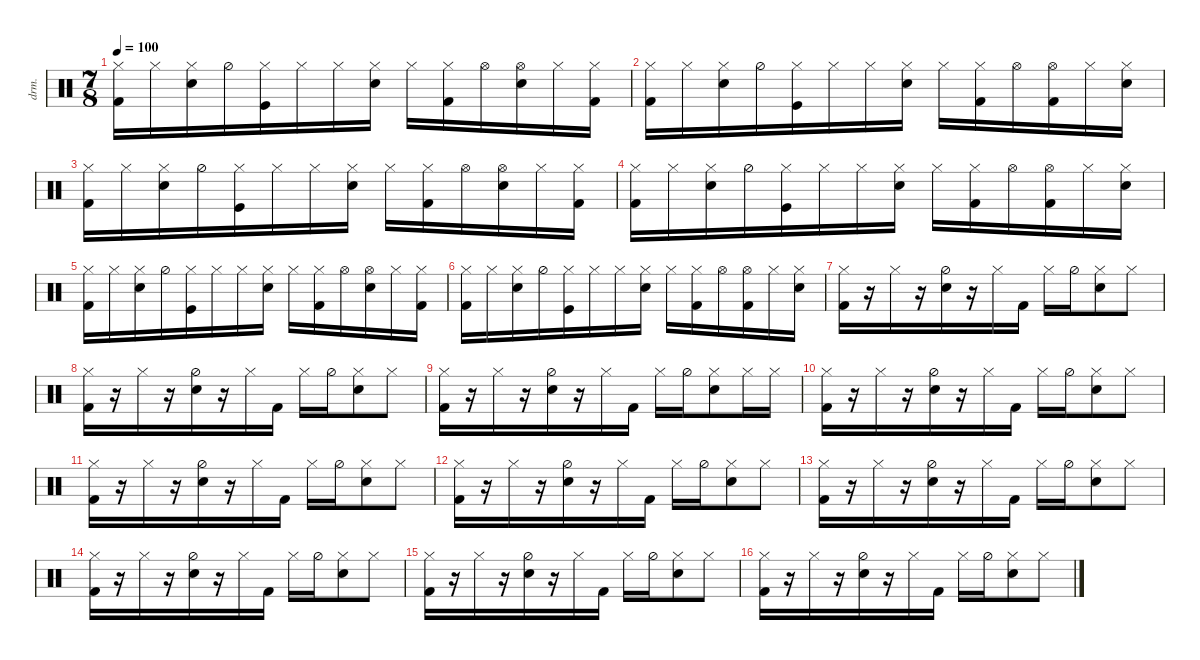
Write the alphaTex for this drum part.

\defaultSystemsLayout 4
\hideDynamics
\bracketExtendMode nobrackets
\otherSystemsTrackNameOrientation horizontal
\track ("Drumkit" "drm.") {instrument percussion}
\staff {score}
\articulation defaults
\ts (7 8)
\tempo 100
\clef neutral
\ks c
("Hi-Hat (closed)" "Kick (hit) 2").16{dy mf beam Down} "Hi-Hat (closed)".16{beam Down} ("Hi-Hat (closed)" "Snare (hit) 2").16{beam Down} "Hi-Hat (half)".16{beam Down} ("Hi-Hat (closed)" "Kick (hit)").16{beam Down} "Hi-Hat (closed)".16{beam Down} "Hi-Hat (closed)".16{beam Down} ("Hi-Hat (closed)" "Snare (hit) 2").16{beam Down} "Hi-Hat (closed)".16{beam Down} ("Hi-Hat (closed)" "Kick (hit) 2").16{beam Down} "Hi-Hat (open)".16{beam Down} ("Hi-Hat (open)" "Snare (hit) 2").16{beam Down} "Hi-Hat (closed)".16{beam Down} ("Hi-Hat (closed)" "Kick (hit) 2").16{beam Down} |
("Hi-Hat (closed)" "Kick (hit) 2").16{beam Down} "Hi-Hat (closed)".16{beam Down} ("Hi-Hat (closed)" "Snare (hit) 2").16{beam Down} "Hi-Hat (half)".16{beam Down} ("Hi-Hat (closed)" "Kick (hit)").16{beam Down} "Hi-Hat (closed)".16{beam Down} "Hi-Hat (closed)".16{beam Down} ("Hi-Hat (closed)" "Snare (hit) 2").16{beam Down} "Hi-Hat (closed)".16{beam Down} ("Hi-Hat (closed)" "Kick (hit) 2").16{beam Down} "Hi-Hat (open)".16{beam Down} ("Hi-Hat (open)" "Kick (hit) 2").16{beam Down} "Hi-Hat (closed)".16{beam Down} ("Hi-Hat (closed)" "Snare (hit) 2").16{beam Down} |
("Hi-Hat (closed)" "Kick (hit) 2").16{beam Down} "Hi-Hat (closed)".16{beam Down} ("Hi-Hat (closed)" "Snare (hit) 2").16{beam Down} "Hi-Hat (half)".16{beam Down} ("Hi-Hat (closed)" "Kick (hit)").16{beam Down} "Hi-Hat (closed)".16{beam Down} "Hi-Hat (closed)".16{beam Down} ("Hi-Hat (closed)" "Snare (hit) 2").16{beam Down} "Hi-Hat (closed)".16{beam Down} ("Hi-Hat (closed)" "Kick (hit) 2").16{beam Down} "Hi-Hat (open)".16{beam Down} ("Hi-Hat (open)" "Snare (hit) 2").16{beam Down} "Hi-Hat (closed)".16{beam Down} ("Hi-Hat (closed)" "Kick (hit) 2").16{beam Down} |
("Hi-Hat (closed)" "Kick (hit) 2").16{beam Down} "Hi-Hat (closed)".16{beam Down} ("Hi-Hat (closed)" "Snare (hit) 2").16{beam Down} "Hi-Hat (half)".16{beam Down} ("Hi-Hat (closed)" "Kick (hit)").16{beam Down} "Hi-Hat (closed)".16{beam Down} "Hi-Hat (closed)".16{beam Down} ("Hi-Hat (closed)" "Snare (hit) 2").16{beam Down} "Hi-Hat (closed)".16{beam Down} ("Hi-Hat (closed)" "Kick (hit) 2").16{beam Down} "Hi-Hat (open)".16{beam Down} ("Hi-Hat (open)" "Kick (hit) 2").16{beam Down} "Hi-Hat (closed)".16{beam Down} ("Hi-Hat (closed)" "Snare (hit) 2").16{beam Down} |
("Hi-Hat (closed)" "Kick (hit) 2").16{beam Down} "Hi-Hat (closed)".16{beam Down} ("Hi-Hat (closed)" "Snare (hit) 2").16{beam Down} "Hi-Hat (half)".16{beam Down} ("Hi-Hat (closed)" "Kick (hit)").16{beam Down} "Hi-Hat (closed)".16{beam Down} "Hi-Hat (closed)".16{beam Down} ("Hi-Hat (closed)" "Snare (hit) 2").16{beam Down} "Hi-Hat (closed)".16{beam Down} ("Hi-Hat (closed)" "Kick (hit) 2").16{beam Down} "Hi-Hat (open)".16{beam Down} ("Hi-Hat (open)" "Snare (hit) 2").16{beam Down} "Hi-Hat (closed)".16{beam Down} ("Hi-Hat (closed)" "Kick (hit) 2").16{beam Down} |
("Hi-Hat (closed)" "Kick (hit) 2").16{beam Down} "Hi-Hat (closed)".16{beam Down} ("Hi-Hat (closed)" "Snare (hit) 2").16{beam Down} "Hi-Hat (half)".16{beam Down} ("Hi-Hat (closed)" "Kick (hit)").16{beam Down} "Hi-Hat (closed)".16{beam Down} "Hi-Hat (closed)".16{beam Down} ("Hi-Hat (closed)" "Snare (hit) 2").16{beam Down} "Hi-Hat (closed)".16{beam Down} ("Hi-Hat (closed)" "Kick (hit) 2").16{beam Down} "Hi-Hat (open)".16{beam Down} ("Hi-Hat (open)" "Kick (hit) 2").16{beam Down} "Hi-Hat (closed)".16{beam Down} ("Hi-Hat (closed)" "Snare (hit) 2").16{beam Down} |
("Hi-Hat (closed)" "Kick (hit) 2").16{beam Down} r.16{beam Down} "Hi-Hat (closed)".16{beam Down} r.16{beam Down} ("Hi-Hat (half)" "Snare (hit) 2").16{beam Down} r.16{beam Down} "Hi-Hat (closed)".16{beam Down} "Kick (hit) 2".16{beam Down} "Hi-Hat (closed)".16{beam Down} "Hi-Hat (half)".16{beam Down} ("Snare (hit) 2" "Hi-Hat (closed)").8{beam Down} "Hi-Hat (closed)".8{beam Down} |
("Hi-Hat (closed)" "Kick (hit) 2").16{beam Down} r.16{beam Down} "Hi-Hat (closed)".16{beam Down} r.16{beam Down} ("Hi-Hat (half)" "Snare (hit) 2").16{beam Down} r.16{beam Down} "Hi-Hat (closed)".16{beam Down} "Kick (hit) 2".16{beam Down} "Hi-Hat (closed)".16{beam Down} "Hi-Hat (half)".16{beam Down} ("Snare (hit) 2" "Hi-Hat (closed)").8{beam Down} "Hi-Hat (closed)".8{beam Down} |
("Hi-Hat (closed)" "Kick (hit) 2").16{beam Down} r.16{beam Down} "Hi-Hat (closed)".16{beam Down} r.16{beam Down} ("Hi-Hat (half)" "Snare (hit) 2").16{beam Down} r.16{beam Down} "Hi-Hat (closed)".16{beam Down} "Kick (hit) 2".16{beam Down} "Hi-Hat (closed)".16{beam Down} "Hi-Hat (half)".16{beam Down} ("Snare (hit) 2" "Hi-Hat (closed)").8{beam Down} "Hi-Hat (closed)".16{beam Down} "Hi-Hat (closed)".16{beam Down} |
("Hi-Hat (closed)" "Kick (hit) 2").16{beam Down} r.16{beam Down} "Hi-Hat (closed)".16{beam Down} r.16{beam Down} ("Hi-Hat (half)" "Snare (hit) 2").16{beam Down} r.16{beam Down} "Hi-Hat (closed)".16{beam Down} "Kick (hit) 2".16{beam Down} "Hi-Hat (closed)".16{beam Down} "Hi-Hat (half)".16{beam Down} ("Snare (hit) 2" "Hi-Hat (closed)").8{beam Down} "Hi-Hat (closed)".8{beam Down} |
("Hi-Hat (closed)" "Kick (hit) 2").16{beam Down} r.16{beam Down} "Hi-Hat (closed)".16{beam Down} r.16{beam Down} ("Hi-Hat (half)" "Snare (hit) 2").16{beam Down} r.16{beam Down} "Hi-Hat (closed)".16{beam Down} "Kick (hit) 2".16{beam Down} "Hi-Hat (closed)".16{beam Down} "Hi-Hat (half)".16{beam Down} ("Snare (hit) 2" "Hi-Hat (closed)").8{beam Down} "Hi-Hat (closed)".8{beam Down} |
("Hi-Hat (closed)" "Kick (hit) 2").16{beam Down} r.16{beam Down} "Hi-Hat (closed)".16{beam Down} r.16{beam Down} ("Hi-Hat (half)" "Snare (hit) 2").16{beam Down} r.16{beam Down} "Hi-Hat (closed)".16{beam Down} "Kick (hit) 2".16{beam Down} "Hi-Hat (closed)".16{beam Down} "Hi-Hat (half)".16{beam Down} ("Snare (hit) 2" "Hi-Hat (closed)").8{beam Down} "Hi-Hat (closed)".8{beam Down} |
("Hi-Hat (closed)" "Kick (hit) 2").16{beam Down} r.16{beam Down} "Hi-Hat (closed)".16{beam Down} r.16{beam Down} ("Hi-Hat (half)" "Snare (hit) 2").16{beam Down} r.16{beam Down} "Hi-Hat (closed)".16{beam Down} "Kick (hit) 2".16{beam Down} "Hi-Hat (closed)".16{beam Down} "Hi-Hat (half)".16{beam Down} ("Snare (hit) 2" "Hi-Hat (closed)").8{beam Down} "Hi-Hat (closed)".8{beam Down} |
("Hi-Hat (closed)" "Kick (hit) 2").16{beam Down} r.16{beam Down} "Hi-Hat (closed)".16{beam Down} r.16{beam Down} ("Hi-Hat (half)" "Snare (hit) 2").16{beam Down} r.16{beam Down} "Hi-Hat (closed)".16{beam Down} "Kick (hit) 2".16{beam Down} "Hi-Hat (closed)".16{beam Down} "Hi-Hat (half)".16{beam Down} ("Snare (hit) 2" "Hi-Hat (closed)").8{beam Down} "Hi-Hat (closed)".8{beam Down} |
("Hi-Hat (closed)" "Kick (hit) 2").16{beam Down} r.16{beam Down} "Hi-Hat (closed)".16{beam Down} r.16{beam Down} ("Hi-Hat (half)" "Snare (hit) 2").16{beam Down} r.16{beam Down} "Hi-Hat (closed)".16{beam Down} "Kick (hit) 2".16{beam Down} "Hi-Hat (closed)".16{beam Down} "Hi-Hat (half)".16{beam Down} ("Snare (hit) 2" "Hi-Hat (closed)").8{beam Down} "Hi-Hat (closed)".8{beam Down} |
("Hi-Hat (closed)" "Kick (hit) 2").16{beam Down} r.16{beam Down} "Hi-Hat (closed)".16{beam Down} r.16{beam Down} ("Hi-Hat (half)" "Snare (hit) 2").16{beam Down} r.16{beam Down} "Hi-Hat (closed)".16{beam Down} "Kick (hit) 2".16{beam Down} "Hi-Hat (closed)".16{beam Down} "Hi-Hat (half)".16{beam Down} ("Snare (hit) 2" "Hi-Hat (closed)").8{beam Down} "Hi-Hat (closed)".8{beam Down}
